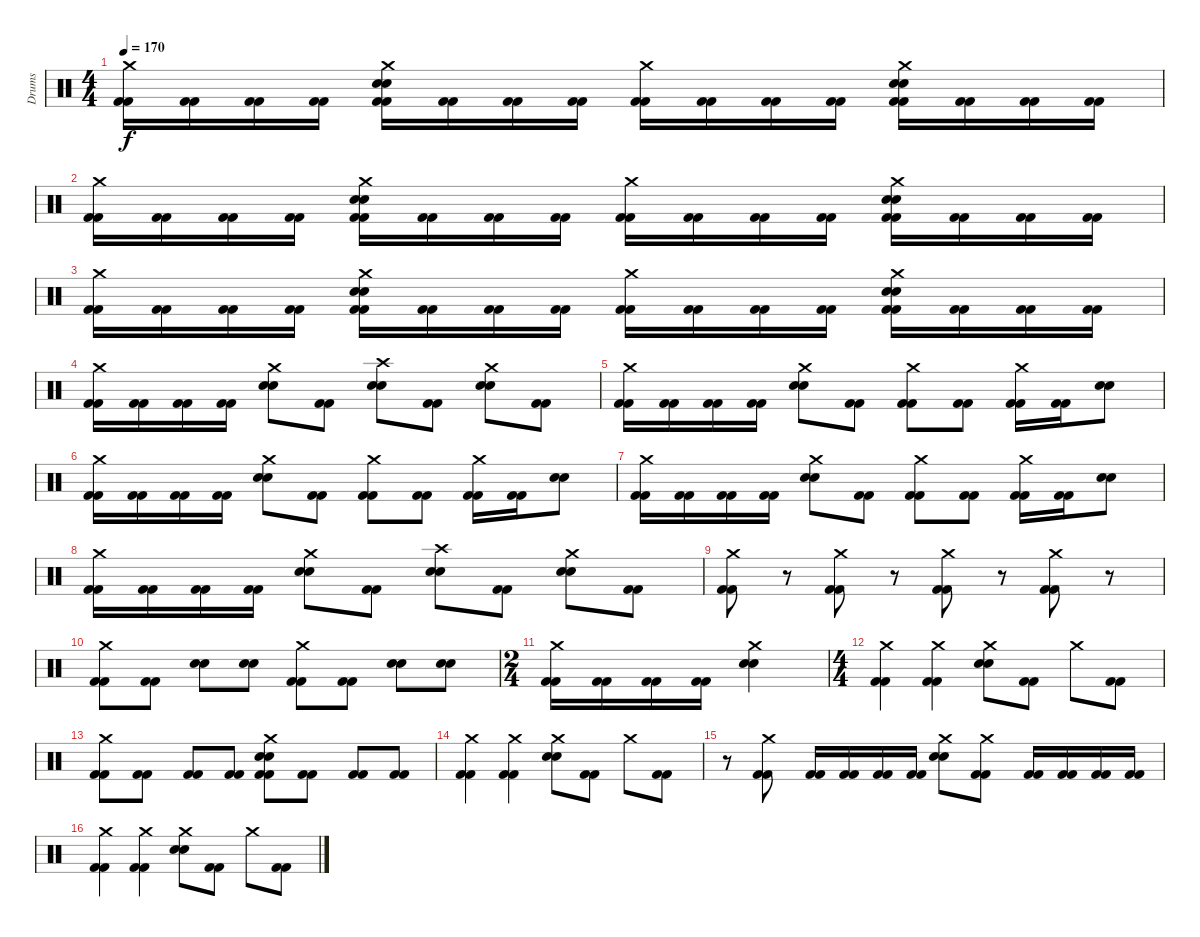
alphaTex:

\track ("Drums" "Drums") {instrument percussion}
\staff {score}
\articulation defaults
\ts (4 4)
\tempo 170
\clef neutral
\ks c
("Crash medium (hit)" "Kick (hit) 2" "Kick (hit) 2").16{dy f} ("Kick (hit) 2" "Kick (hit) 2").16 ("Kick (hit) 2" "Kick (hit) 2").16 ("Kick (hit) 2" "Kick (hit) 2").16 ("Crash medium (hit)" "Kick (hit) 2" "Kick (hit) 2" "Snare (hit) 2" "Snare (hit) 2").16 ("Kick (hit) 2" "Kick (hit) 2").16 ("Kick (hit) 2" "Kick (hit) 2").16 ("Kick (hit) 2" "Kick (hit) 2").16 ("Crash medium (hit)" "Kick (hit) 2" "Kick (hit) 2").16 ("Kick (hit) 2" "Kick (hit) 2").16 ("Kick (hit) 2" "Kick (hit) 2").16 ("Kick (hit) 2" "Kick (hit) 2").16 ("Crash medium (hit)" "Kick (hit) 2" "Kick (hit) 2" "Snare (hit) 2" "Snare (hit) 2").16 ("Kick (hit) 2" "Kick (hit) 2").16 ("Kick (hit) 2" "Kick (hit) 2").16 ("Kick (hit) 2" "Kick (hit) 2").16 |
("Crash medium (hit)" "Kick (hit) 2" "Kick (hit) 2").16 ("Kick (hit) 2" "Kick (hit) 2").16 ("Kick (hit) 2" "Kick (hit) 2").16 ("Kick (hit) 2" "Kick (hit) 2").16 ("Crash medium (hit)" "Kick (hit) 2" "Kick (hit) 2" "Snare (hit) 2" "Snare (hit) 2").16 ("Kick (hit) 2" "Kick (hit) 2").16 ("Kick (hit) 2" "Kick (hit) 2").16 ("Kick (hit) 2" "Kick (hit) 2").16 ("Crash medium (hit)" "Kick (hit) 2" "Kick (hit) 2").16 ("Kick (hit) 2" "Kick (hit) 2").16 ("Kick (hit) 2" "Kick (hit) 2").16 ("Kick (hit) 2" "Kick (hit) 2").16 ("Crash medium (hit)" "Kick (hit) 2" "Kick (hit) 2" "Snare (hit) 2" "Snare (hit) 2").16 ("Kick (hit) 2" "Kick (hit) 2").16 ("Kick (hit) 2" "Kick (hit) 2").16 ("Kick (hit) 2" "Kick (hit) 2").16 |
("Crash medium (hit)" "Kick (hit) 2" "Kick (hit) 2").16 ("Kick (hit) 2" "Kick (hit) 2").16 ("Kick (hit) 2" "Kick (hit) 2").16 ("Kick (hit) 2" "Kick (hit) 2").16 ("Crash medium (hit)" "Kick (hit) 2" "Kick (hit) 2" "Snare (hit) 2" "Snare (hit) 2").16 ("Kick (hit) 2" "Kick (hit) 2").16 ("Kick (hit) 2" "Kick (hit) 2").16 ("Kick (hit) 2" "Kick (hit) 2").16 ("Crash medium (hit)" "Kick (hit) 2" "Kick (hit) 2").16 ("Kick (hit) 2" "Kick (hit) 2").16 ("Kick (hit) 2" "Kick (hit) 2").16 ("Kick (hit) 2" "Kick (hit) 2").16 ("Crash medium (hit)" "Kick (hit) 2" "Kick (hit) 2" "Snare (hit) 2" "Snare (hit) 2").16 ("Kick (hit) 2" "Kick (hit) 2").16 ("Kick (hit) 2" "Kick (hit) 2").16 ("Kick (hit) 2" "Kick (hit) 2").16 |
("Crash medium (hit)" "Kick (hit) 2" "Kick (hit) 2").16 ("Kick (hit) 2" "Kick (hit) 2").16 ("Kick (hit) 2" "Kick (hit) 2").16 ("Kick (hit) 2" "Kick (hit) 2").16 ("Crash medium (hit)" "Snare (hit) 2" "Snare (hit) 2").8 ("Kick (hit) 2" "Kick (hit) 2").8 ("Crash high (hit)" "Snare (hit) 2" "Snare (hit) 2").8 ("Kick (hit) 2" "Kick (hit) 2").8 ("Crash medium (hit)" "Snare (hit) 2" "Snare (hit) 2").8 ("Kick (hit) 2" "Kick (hit) 2").8 |
("Crash medium (hit)" "Kick (hit) 2" "Kick (hit) 2").16 ("Kick (hit) 2" "Kick (hit) 2").16 ("Kick (hit) 2" "Kick (hit) 2").16 ("Kick (hit) 2" "Kick (hit) 2").16 ("Crash medium (hit)" "Snare (hit) 2" "Snare (hit) 2").8 ("Kick (hit) 2" "Kick (hit) 2").8 ("Crash medium (hit)" "Kick (hit) 2" "Kick (hit) 2").8 ("Kick (hit) 2" "Kick (hit) 2").8 ("Crash medium (hit)" "Kick (hit) 2" "Kick (hit) 2").16 ("Kick (hit) 2" "Kick (hit) 2").16 ("Snare (hit) 2" "Snare (hit) 2").8 |
("Crash medium (hit)" "Kick (hit) 2" "Kick (hit) 2").16 ("Kick (hit) 2" "Kick (hit) 2").16 ("Kick (hit) 2" "Kick (hit) 2").16 ("Kick (hit) 2" "Kick (hit) 2").16 ("Crash medium (hit)" "Snare (hit) 2" "Snare (hit) 2").8 ("Kick (hit) 2" "Kick (hit) 2").8 ("Crash medium (hit)" "Kick (hit) 2" "Kick (hit) 2").8 ("Kick (hit) 2" "Kick (hit) 2").8 ("Crash medium (hit)" "Kick (hit) 2" "Kick (hit) 2").16 ("Kick (hit) 2" "Kick (hit) 2").16 ("Snare (hit) 2" "Snare (hit) 2").8 |
("Crash medium (hit)" "Kick (hit) 2" "Kick (hit) 2").16 ("Kick (hit) 2" "Kick (hit) 2").16 ("Kick (hit) 2" "Kick (hit) 2").16 ("Kick (hit) 2" "Kick (hit) 2").16 ("Crash medium (hit)" "Snare (hit) 2" "Snare (hit) 2").8 ("Kick (hit) 2" "Kick (hit) 2").8 ("Crash medium (hit)" "Kick (hit) 2" "Kick (hit) 2").8 ("Kick (hit) 2" "Kick (hit) 2").8 ("Crash medium (hit)" "Kick (hit) 2" "Kick (hit) 2").16 ("Kick (hit) 2" "Kick (hit) 2").16 ("Snare (hit) 2" "Snare (hit) 2").8 |
("Crash medium (hit)" "Kick (hit) 2" "Kick (hit) 2").16 ("Kick (hit) 2" "Kick (hit) 2").16 ("Kick (hit) 2" "Kick (hit) 2").16 ("Kick (hit) 2" "Kick (hit) 2").16 ("Crash medium (hit)" "Snare (hit) 2" "Snare (hit) 2").8 ("Kick (hit) 2" "Kick (hit) 2").8 ("Crash high (hit)" "Snare (hit) 2" "Snare (hit) 2").8 ("Kick (hit) 2" "Kick (hit) 2").8 ("Crash medium (hit)" "Snare (hit) 2" "Snare (hit) 2").8 ("Kick (hit) 2" "Kick (hit) 2").8 |
("Crash medium (hit)" "Kick (hit) 2" "Kick (hit) 2").8 r.8 ("Crash medium (hit)" "Kick (hit) 2" "Kick (hit) 2").8 r.8 ("Crash medium (hit)" "Kick (hit) 2" "Kick (hit) 2").8 r.8 ("Crash medium (hit)" "Kick (hit) 2" "Kick (hit) 2").8 r.8 |
("Crash medium (hit)" "Kick (hit) 2" "Kick (hit) 2").8 ("Kick (hit) 2" "Kick (hit) 2").8 ("Snare (hit) 2" "Snare (hit) 2").8 ("Snare (hit) 2" "Snare (hit) 2").8 ("Crash medium (hit)" "Kick (hit) 2" "Kick (hit) 2").8 ("Kick (hit) 2" "Kick (hit) 2").8 ("Snare (hit) 2" "Snare (hit) 2").8 ("Snare (hit) 2" "Snare (hit) 2").8 |
\ts (2 4)
("Crash medium (hit)" "Kick (hit) 2" "Kick (hit) 2").16 ("Kick (hit) 2" "Kick (hit) 2").16 ("Kick (hit) 2" "Kick (hit) 2").16 ("Kick (hit) 2" "Kick (hit) 2").16 ("Crash medium (hit)" "Snare (hit) 2" "Snare (hit) 2").4 |
\ts (4 4)
("Crash medium (hit)" "Kick (hit) 2" "Kick (hit) 2").4 ("Crash medium (hit)" "Kick (hit) 2" "Kick (hit) 2").4 ("Crash medium (hit)" "Snare (hit) 2" "Snare (hit) 2").8 ("Kick (hit) 2" "Kick (hit) 2").8 "Crash medium (hit)".8 ("Kick (hit) 2" "Kick (hit) 2").8 |
("Crash medium (hit)" "Kick (hit) 2" "Kick (hit) 2").8 ("Kick (hit) 2" "Kick (hit) 2").8 ("Kick (hit) 2" "Kick (hit) 2").8 ("Kick (hit) 2" "Kick (hit) 2").8 ("Crash medium (hit)" "Snare (hit) 2" "Snare (hit) 2" "Kick (hit) 2" "Kick (hit) 2").8 ("Kick (hit) 2" "Kick (hit) 2").8 ("Kick (hit) 2" "Kick (hit) 2").8 ("Kick (hit) 2" "Kick (hit) 2").8 |
("Crash medium (hit)" "Kick (hit) 2" "Kick (hit) 2").4 ("Crash medium (hit)" "Kick (hit) 2" "Kick (hit) 2").4 ("Crash medium (hit)" "Snare (hit) 2" "Snare (hit) 2").8 ("Kick (hit) 2" "Kick (hit) 2").8 "Crash medium (hit)".8 ("Kick (hit) 2" "Kick (hit) 2").8 |
r.8 ("Crash medium (hit)" "Kick (hit) 2" "Kick (hit) 2").8 ("Kick (hit) 2" "Kick (hit) 2").16 ("Kick (hit) 2" "Kick (hit) 2").16 ("Kick (hit) 2" "Kick (hit) 2").16 ("Kick (hit) 2" "Kick (hit) 2").16 ("Crash medium (hit)" "Snare (hit) 2" "Snare (hit) 2").8 ("Crash medium (hit)" "Kick (hit) 2" "Kick (hit) 2").8 ("Kick (hit) 2" "Kick (hit) 2").16 ("Kick (hit) 2" "Kick (hit) 2").16 ("Kick (hit) 2" "Kick (hit) 2").16 ("Kick (hit) 2" "Kick (hit) 2").16 |
("Crash medium (hit)" "Kick (hit) 2" "Kick (hit) 2").4 ("Crash medium (hit)" "Kick (hit) 2" "Kick (hit) 2").4 ("Crash medium (hit)" "Snare (hit) 2" "Snare (hit) 2").8 ("Kick (hit) 2" "Kick (hit) 2").8 "Crash medium (hit)".8 ("Kick (hit) 2" "Kick (hit) 2").8
